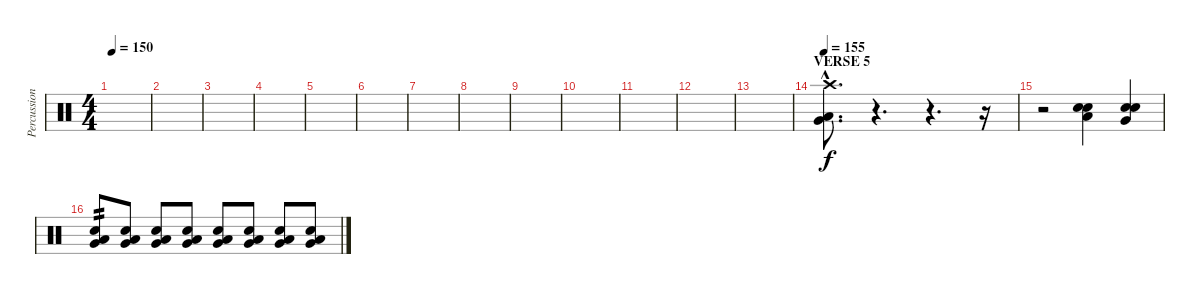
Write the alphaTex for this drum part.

\track ("Percussion-group" "Percussion") {instrument percussion}
\staff {score}
\articulation defaults
\ts (4 4)
\tempo 150
\clef neutral
\ks c
|
|
|
|
|
|
|
|
|
|
|
|
|
\section ("" "VERSE 5")
\tempo 155
("Very Low Tom (hit)"{hac} "Low Tom (hit)"{hac} "Crash high (hit)"{hac}).8{d} r.4{d} r.4{d} r.16 |
r.2 ("Low Tom (hit)" "Electric Snare (hit)" "Snare (hit) 2").4 ("Very Low Tom (hit)" "Electric Snare (hit)" "Snare (hit) 2").4 |
("Low Tom (hit)" "Very Low Tom (hit)" "Electric Snare (hit)").8{tp 2} ("Low Tom (hit)" "Very Low Tom (hit)" "Electric Snare (hit)").8 ("Low Tom (hit)" "Very Low Tom (hit)" "Electric Snare (hit)").8 ("Low Tom (hit)" "Very Low Tom (hit)" "Electric Snare (hit)").8 ("Low Tom (hit)" "Very Low Tom (hit)" "Electric Snare (hit)").8 ("Low Tom (hit)" "Very Low Tom (hit)" "Electric Snare (hit)").8 ("Low Tom (hit)" "Very Low Tom (hit)" "Electric Snare (hit)").8 ("Low Tom (hit)" "Very Low Tom (hit)" "Electric Snare (hit)").8
